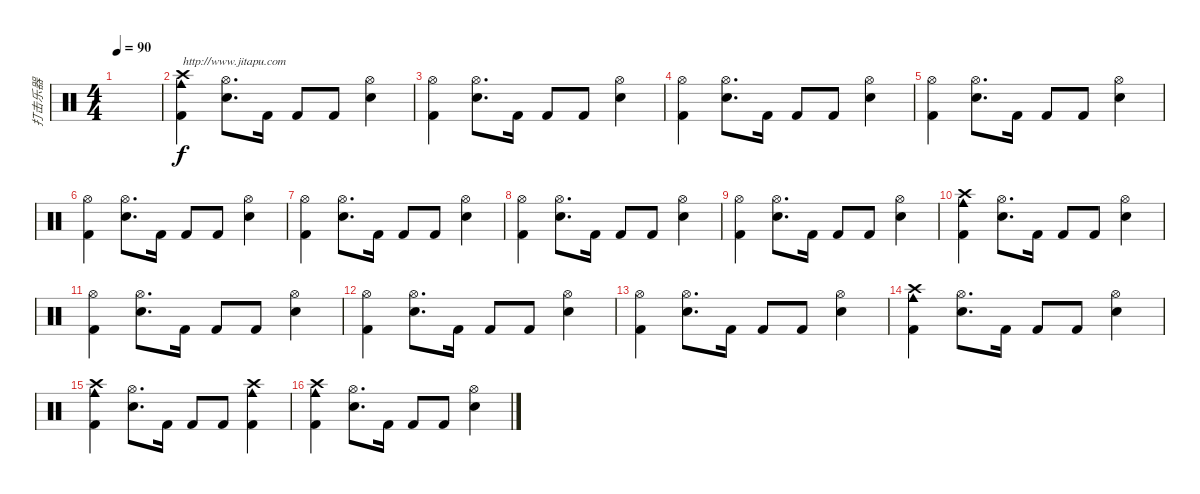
\track ("打击乐器" "打击乐器") {instrument percussion}
\staff {score}
\articulation defaults
\ts (4 4)
\tempo 90
\clef neutral
\ks c
|
("Crash high (hit)" "Cowbell medium (hit)" "Kick (hit) 2").4{txt "http://www.jitapu.com"} ("Electric Snare (hit)" "Hi-Hat (open)").8{d} "Kick (hit) 2".16 "Kick (hit) 2".8 "Kick (hit) 2".8 ("Electric Snare (hit)" "Hi-Hat (open)").4 |
("Hi-Hat (open)" "Kick (hit) 2").4 ("Electric Snare (hit)" "Hi-Hat (open)").8{d} "Kick (hit) 2".16 "Kick (hit) 2".8 "Kick (hit) 2".8 ("Electric Snare (hit)" "Hi-Hat (open)").4 |
("Hi-Hat (open)" "Kick (hit) 2").4 ("Electric Snare (hit)" "Hi-Hat (open)").8{d} "Kick (hit) 2".16 "Kick (hit) 2".8 "Kick (hit) 2".8 ("Electric Snare (hit)" "Hi-Hat (open)").4 |
("Hi-Hat (open)" "Kick (hit) 2").4 ("Electric Snare (hit)" "Hi-Hat (open)").8{d} "Kick (hit) 2".16 "Kick (hit) 2".8 "Kick (hit) 2".8 ("Electric Snare (hit)" "Hi-Hat (open)").4 |
("Hi-Hat (open)" "Kick (hit) 2").4 ("Electric Snare (hit)" "Hi-Hat (open)").8{d} "Kick (hit) 2".16 "Kick (hit) 2".8 "Kick (hit) 2".8 ("Electric Snare (hit)" "Hi-Hat (open)").4 |
("Hi-Hat (open)" "Kick (hit) 2").4 ("Electric Snare (hit)" "Hi-Hat (open)").8{d} "Kick (hit) 2".16 "Kick (hit) 2".8 "Kick (hit) 2".8 ("Electric Snare (hit)" "Hi-Hat (open)").4 |
("Hi-Hat (open)" "Kick (hit) 2").4 ("Electric Snare (hit)" "Hi-Hat (open)").8{d} "Kick (hit) 2".16 "Kick (hit) 2".8 "Kick (hit) 2".8 ("Electric Snare (hit)" "Hi-Hat (open)").4 |
("Hi-Hat (open)" "Kick (hit) 2").4 ("Electric Snare (hit)" "Hi-Hat (open)").8{d} "Kick (hit) 2".16 "Kick (hit) 2".8 "Kick (hit) 2".8 ("Electric Snare (hit)" "Hi-Hat (open)").4 |
("Crash high (hit)" "Cowbell medium (hit)" "Kick (hit) 2").4 ("Electric Snare (hit)" "Hi-Hat (open)").8{d} "Kick (hit) 2".16 "Kick (hit) 2".8 "Kick (hit) 2".8 ("Electric Snare (hit)" "Hi-Hat (open)").4 |
("Hi-Hat (open)" "Kick (hit) 2").4 ("Electric Snare (hit)" "Hi-Hat (open)").8{d} "Kick (hit) 2".16 "Kick (hit) 2".8 "Kick (hit) 2".8 ("Electric Snare (hit)" "Hi-Hat (open)").4 |
("Hi-Hat (open)" "Kick (hit) 2").4 ("Electric Snare (hit)" "Hi-Hat (open)").8{d} "Kick (hit) 2".16 "Kick (hit) 2".8 "Kick (hit) 2".8 ("Electric Snare (hit)" "Hi-Hat (open)").4 |
("Hi-Hat (open)" "Kick (hit) 2").4 ("Electric Snare (hit)" "Hi-Hat (open)").8{d} "Kick (hit) 2".16 "Kick (hit) 2".8 "Kick (hit) 2".8 ("Electric Snare (hit)" "Hi-Hat (open)").4 |
("Crash high (hit)" "Cowbell medium (hit)" "Kick (hit) 2").4 ("Electric Snare (hit)" "Hi-Hat (open)").8{d} "Kick (hit) 2".16 "Kick (hit) 2".8 "Kick (hit) 2".8 ("Electric Snare (hit)" "Hi-Hat (open)").4 |
("Crash high (hit)" "Cowbell medium (hit)" "Kick (hit) 2").4 ("Electric Snare (hit)" "Hi-Hat (open)").8{d} "Kick (hit) 2".16 "Kick (hit) 2".8 "Kick (hit) 2".8 ("Crash high (hit)" "Cowbell medium (hit)" "Kick (hit) 2").4 |
("Crash high (hit)" "Cowbell medium (hit)" "Kick (hit) 2").4 ("Electric Snare (hit)" "Hi-Hat (open)").8{d} "Kick (hit) 2".16 "Kick (hit) 2".8 "Kick (hit) 2".8 ("Electric Snare (hit)" "Hi-Hat (open)").4
